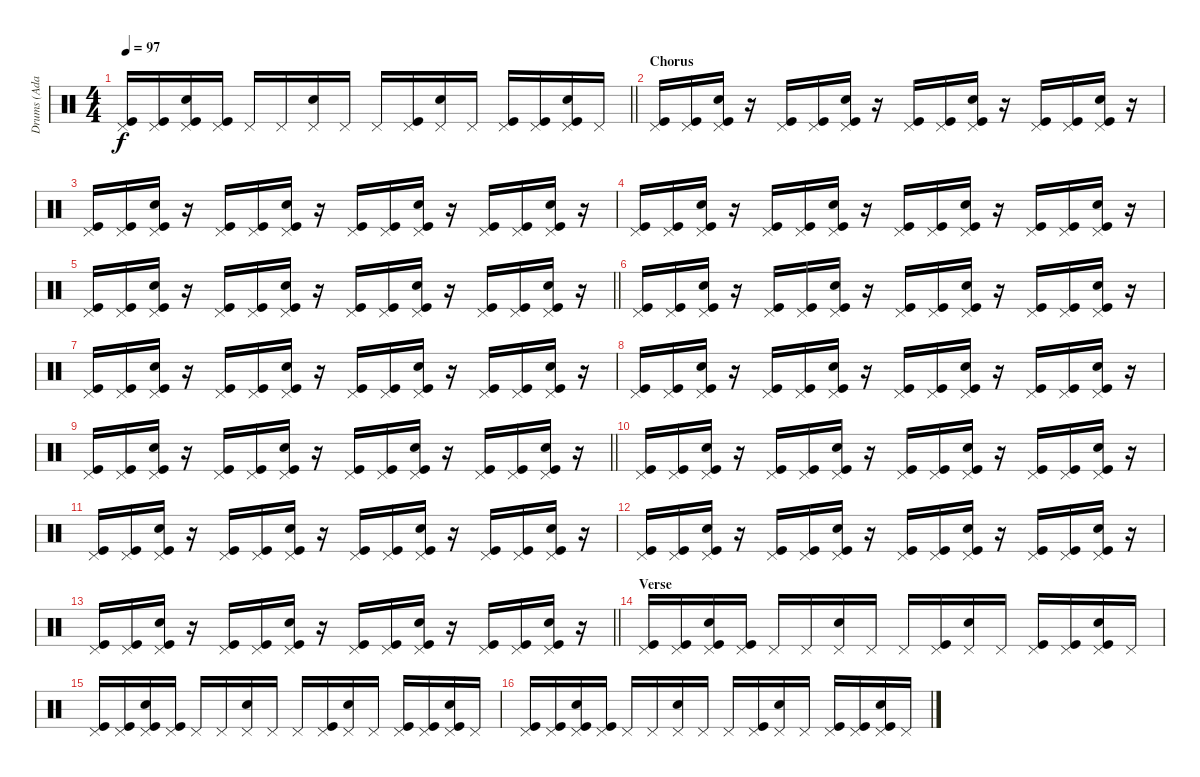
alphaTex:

\track ("Drums (Adam)" "Drums (Ada") {instrument percussion}
\staff {score}
\articulation defaults
\ts (4 4)
\tempo 97
\clef neutral
\barLineRight lightlight
\ks c
("Kick (hit)" "Pedal Hi-Hat (hit)").16{dy f} ("Kick (hit)" "Pedal Hi-Hat (hit)").16 ("Kick (hit)" "Snare (hit) 2" "Pedal Hi-Hat (hit)").16 ("Kick (hit)" "Pedal Hi-Hat (hit)").16 "Pedal Hi-Hat (hit)".16 "Pedal Hi-Hat (hit)".16 ("Snare (hit) 2" "Pedal Hi-Hat (hit)").16 "Pedal Hi-Hat (hit)".16 "Pedal Hi-Hat (hit)".16 ("Kick (hit)" "Pedal Hi-Hat (hit)").16 ("Snare (hit) 2" "Pedal Hi-Hat (hit)").16 "Pedal Hi-Hat (hit)".16 ("Kick (hit)" "Pedal Hi-Hat (hit)").16 ("Kick (hit)" "Pedal Hi-Hat (hit)").16 ("Kick (hit)" "Pedal Hi-Hat (hit)" "Snare (hit) 2").16 "Pedal Hi-Hat (hit)".16 |
\section ("" "Chorus")
("Kick (hit)" "Pedal Hi-Hat (hit)").16 ("Kick (hit)" "Pedal Hi-Hat (hit)").16 ("Kick (hit)" "Pedal Hi-Hat (hit)" "Snare (hit) 2").16 r.16 ("Kick (hit)" "Pedal Hi-Hat (hit)").16 ("Kick (hit)" "Pedal Hi-Hat (hit)").16 ("Kick (hit)" "Pedal Hi-Hat (hit)" "Snare (hit) 2").16 r.16 ("Kick (hit)" "Pedal Hi-Hat (hit)").16 ("Kick (hit)" "Pedal Hi-Hat (hit)").16 ("Kick (hit)" "Pedal Hi-Hat (hit)" "Snare (hit) 2").16 r.16 ("Kick (hit)" "Pedal Hi-Hat (hit)").16 ("Kick (hit)" "Pedal Hi-Hat (hit)").16 ("Kick (hit)" "Pedal Hi-Hat (hit)" "Snare (hit) 2").16 r.16 |
("Kick (hit)" "Pedal Hi-Hat (hit)").16 ("Kick (hit)" "Pedal Hi-Hat (hit)").16 ("Kick (hit)" "Pedal Hi-Hat (hit)" "Snare (hit) 2").16 r.16 ("Kick (hit)" "Pedal Hi-Hat (hit)").16 ("Kick (hit)" "Pedal Hi-Hat (hit)").16 ("Kick (hit)" "Pedal Hi-Hat (hit)" "Snare (hit) 2").16 r.16 ("Kick (hit)" "Pedal Hi-Hat (hit)").16 ("Kick (hit)" "Pedal Hi-Hat (hit)").16 ("Kick (hit)" "Pedal Hi-Hat (hit)" "Snare (hit) 2").16 r.16 ("Kick (hit)" "Pedal Hi-Hat (hit)").16 ("Kick (hit)" "Pedal Hi-Hat (hit)").16 ("Kick (hit)" "Pedal Hi-Hat (hit)" "Snare (hit) 2").16 r.16 |
("Kick (hit)" "Pedal Hi-Hat (hit)").16 ("Kick (hit)" "Pedal Hi-Hat (hit)").16 ("Kick (hit)" "Pedal Hi-Hat (hit)" "Snare (hit) 2").16 r.16 ("Kick (hit)" "Pedal Hi-Hat (hit)").16 ("Kick (hit)" "Pedal Hi-Hat (hit)").16 ("Kick (hit)" "Pedal Hi-Hat (hit)" "Snare (hit) 2").16 r.16 ("Kick (hit)" "Pedal Hi-Hat (hit)").16 ("Kick (hit)" "Pedal Hi-Hat (hit)").16 ("Kick (hit)" "Pedal Hi-Hat (hit)" "Snare (hit) 2").16 r.16 ("Kick (hit)" "Pedal Hi-Hat (hit)").16 ("Kick (hit)" "Pedal Hi-Hat (hit)").16 ("Kick (hit)" "Pedal Hi-Hat (hit)" "Snare (hit) 2").16 r.16 |
\barLineRight lightlight
("Kick (hit)" "Pedal Hi-Hat (hit)").16 ("Kick (hit)" "Pedal Hi-Hat (hit)").16 ("Kick (hit)" "Pedal Hi-Hat (hit)" "Snare (hit) 2").16 r.16 ("Kick (hit)" "Pedal Hi-Hat (hit)").16 ("Kick (hit)" "Pedal Hi-Hat (hit)").16 ("Kick (hit)" "Pedal Hi-Hat (hit)" "Snare (hit) 2").16 r.16 ("Kick (hit)" "Pedal Hi-Hat (hit)").16 ("Kick (hit)" "Pedal Hi-Hat (hit)").16 ("Kick (hit)" "Pedal Hi-Hat (hit)" "Snare (hit) 2").16 r.16 ("Kick (hit)" "Pedal Hi-Hat (hit)").16 ("Kick (hit)" "Pedal Hi-Hat (hit)").16 ("Kick (hit)" "Pedal Hi-Hat (hit)" "Snare (hit) 2").16 r.16 |
("Kick (hit)" "Pedal Hi-Hat (hit)").16 ("Kick (hit)" "Pedal Hi-Hat (hit)").16 ("Kick (hit)" "Pedal Hi-Hat (hit)" "Snare (hit) 2").16 r.16 ("Kick (hit)" "Pedal Hi-Hat (hit)").16 ("Kick (hit)" "Pedal Hi-Hat (hit)").16 ("Kick (hit)" "Pedal Hi-Hat (hit)" "Snare (hit) 2").16 r.16 ("Kick (hit)" "Pedal Hi-Hat (hit)").16 ("Kick (hit)" "Pedal Hi-Hat (hit)").16 ("Kick (hit)" "Pedal Hi-Hat (hit)" "Snare (hit) 2").16 r.16 ("Kick (hit)" "Pedal Hi-Hat (hit)").16 ("Kick (hit)" "Pedal Hi-Hat (hit)").16 ("Kick (hit)" "Pedal Hi-Hat (hit)" "Snare (hit) 2").16 r.16 |
("Kick (hit)" "Pedal Hi-Hat (hit)").16 ("Kick (hit)" "Pedal Hi-Hat (hit)").16 ("Kick (hit)" "Pedal Hi-Hat (hit)" "Snare (hit) 2").16 r.16 ("Kick (hit)" "Pedal Hi-Hat (hit)").16 ("Kick (hit)" "Pedal Hi-Hat (hit)").16 ("Kick (hit)" "Pedal Hi-Hat (hit)" "Snare (hit) 2").16 r.16 ("Kick (hit)" "Pedal Hi-Hat (hit)").16 ("Kick (hit)" "Pedal Hi-Hat (hit)").16 ("Kick (hit)" "Pedal Hi-Hat (hit)" "Snare (hit) 2").16 r.16 ("Kick (hit)" "Pedal Hi-Hat (hit)").16 ("Kick (hit)" "Pedal Hi-Hat (hit)").16 ("Kick (hit)" "Pedal Hi-Hat (hit)" "Snare (hit) 2").16 r.16 |
("Kick (hit)" "Pedal Hi-Hat (hit)").16 ("Kick (hit)" "Pedal Hi-Hat (hit)").16 ("Kick (hit)" "Pedal Hi-Hat (hit)" "Snare (hit) 2").16 r.16 ("Kick (hit)" "Pedal Hi-Hat (hit)").16 ("Kick (hit)" "Pedal Hi-Hat (hit)").16 ("Kick (hit)" "Pedal Hi-Hat (hit)" "Snare (hit) 2").16 r.16 ("Kick (hit)" "Pedal Hi-Hat (hit)").16 ("Kick (hit)" "Pedal Hi-Hat (hit)").16 ("Kick (hit)" "Pedal Hi-Hat (hit)" "Snare (hit) 2").16 r.16 ("Kick (hit)" "Pedal Hi-Hat (hit)").16 ("Kick (hit)" "Pedal Hi-Hat (hit)").16 ("Kick (hit)" "Pedal Hi-Hat (hit)" "Snare (hit) 2").16 r.16 |
\barLineRight lightlight
("Kick (hit)" "Pedal Hi-Hat (hit)").16 ("Kick (hit)" "Pedal Hi-Hat (hit)").16 ("Kick (hit)" "Pedal Hi-Hat (hit)" "Snare (hit) 2").16 r.16 ("Kick (hit)" "Pedal Hi-Hat (hit)").16 ("Kick (hit)" "Pedal Hi-Hat (hit)").16 ("Kick (hit)" "Pedal Hi-Hat (hit)" "Snare (hit) 2").16 r.16 ("Kick (hit)" "Pedal Hi-Hat (hit)").16 ("Kick (hit)" "Pedal Hi-Hat (hit)").16 ("Kick (hit)" "Pedal Hi-Hat (hit)" "Snare (hit) 2").16 r.16 ("Kick (hit)" "Pedal Hi-Hat (hit)").16 ("Kick (hit)" "Pedal Hi-Hat (hit)").16 ("Kick (hit)" "Pedal Hi-Hat (hit)" "Snare (hit) 2").16 r.16 |
("Kick (hit)" "Pedal Hi-Hat (hit)").16 ("Kick (hit)" "Pedal Hi-Hat (hit)").16 ("Kick (hit)" "Pedal Hi-Hat (hit)" "Snare (hit) 2").16 r.16 ("Kick (hit)" "Pedal Hi-Hat (hit)").16 ("Kick (hit)" "Pedal Hi-Hat (hit)").16 ("Kick (hit)" "Pedal Hi-Hat (hit)" "Snare (hit) 2").16 r.16 ("Kick (hit)" "Pedal Hi-Hat (hit)").16 ("Kick (hit)" "Pedal Hi-Hat (hit)").16 ("Kick (hit)" "Pedal Hi-Hat (hit)" "Snare (hit) 2").16 r.16 ("Kick (hit)" "Pedal Hi-Hat (hit)").16 ("Kick (hit)" "Pedal Hi-Hat (hit)").16 ("Kick (hit)" "Pedal Hi-Hat (hit)" "Snare (hit) 2").16 r.16 |
("Kick (hit)" "Pedal Hi-Hat (hit)").16 ("Kick (hit)" "Pedal Hi-Hat (hit)").16 ("Kick (hit)" "Pedal Hi-Hat (hit)" "Snare (hit) 2").16 r.16 ("Kick (hit)" "Pedal Hi-Hat (hit)").16 ("Kick (hit)" "Pedal Hi-Hat (hit)").16 ("Kick (hit)" "Pedal Hi-Hat (hit)" "Snare (hit) 2").16 r.16 ("Kick (hit)" "Pedal Hi-Hat (hit)").16 ("Kick (hit)" "Pedal Hi-Hat (hit)").16 ("Kick (hit)" "Pedal Hi-Hat (hit)" "Snare (hit) 2").16 r.16 ("Kick (hit)" "Pedal Hi-Hat (hit)").16 ("Kick (hit)" "Pedal Hi-Hat (hit)").16 ("Kick (hit)" "Pedal Hi-Hat (hit)" "Snare (hit) 2").16 r.16 |
("Kick (hit)" "Pedal Hi-Hat (hit)").16 ("Kick (hit)" "Pedal Hi-Hat (hit)").16 ("Kick (hit)" "Pedal Hi-Hat (hit)" "Snare (hit) 2").16 r.16 ("Kick (hit)" "Pedal Hi-Hat (hit)").16 ("Kick (hit)" "Pedal Hi-Hat (hit)").16 ("Kick (hit)" "Pedal Hi-Hat (hit)" "Snare (hit) 2").16 r.16 ("Kick (hit)" "Pedal Hi-Hat (hit)").16 ("Kick (hit)" "Pedal Hi-Hat (hit)").16 ("Kick (hit)" "Pedal Hi-Hat (hit)" "Snare (hit) 2").16 r.16 ("Kick (hit)" "Pedal Hi-Hat (hit)").16 ("Kick (hit)" "Pedal Hi-Hat (hit)").16 ("Kick (hit)" "Pedal Hi-Hat (hit)" "Snare (hit) 2").16 r.16 |
\barLineRight lightlight
("Kick (hit)" "Pedal Hi-Hat (hit)").16 ("Kick (hit)" "Pedal Hi-Hat (hit)").16 ("Kick (hit)" "Pedal Hi-Hat (hit)" "Snare (hit) 2").16 r.16 ("Kick (hit)" "Pedal Hi-Hat (hit)").16 ("Kick (hit)" "Pedal Hi-Hat (hit)").16 ("Kick (hit)" "Pedal Hi-Hat (hit)" "Snare (hit) 2").16 r.16 ("Kick (hit)" "Pedal Hi-Hat (hit)").16 ("Kick (hit)" "Pedal Hi-Hat (hit)").16 ("Kick (hit)" "Pedal Hi-Hat (hit)" "Snare (hit) 2").16 r.16 ("Kick (hit)" "Pedal Hi-Hat (hit)").16 ("Kick (hit)" "Pedal Hi-Hat (hit)").16 ("Kick (hit)" "Pedal Hi-Hat (hit)" "Snare (hit) 2").16 r.16 |
\section ("" "Verse")
("Kick (hit)" "Pedal Hi-Hat (hit)").16 ("Kick (hit)" "Pedal Hi-Hat (hit)").16 ("Kick (hit)" "Snare (hit) 2" "Pedal Hi-Hat (hit)").16 ("Kick (hit)" "Pedal Hi-Hat (hit)").16 "Pedal Hi-Hat (hit)".16 "Pedal Hi-Hat (hit)".16 ("Snare (hit) 2" "Pedal Hi-Hat (hit)").16 "Pedal Hi-Hat (hit)".16 "Pedal Hi-Hat (hit)".16 ("Kick (hit)" "Pedal Hi-Hat (hit)").16 ("Snare (hit) 2" "Pedal Hi-Hat (hit)").16 "Pedal Hi-Hat (hit)".16 ("Kick (hit)" "Pedal Hi-Hat (hit)").16 ("Kick (hit)" "Pedal Hi-Hat (hit)").16 ("Kick (hit)" "Pedal Hi-Hat (hit)" "Snare (hit) 2").16 "Pedal Hi-Hat (hit)".16 |
("Kick (hit)" "Pedal Hi-Hat (hit)").16 ("Kick (hit)" "Pedal Hi-Hat (hit)").16 ("Kick (hit)" "Snare (hit) 2" "Pedal Hi-Hat (hit)").16 ("Kick (hit)" "Pedal Hi-Hat (hit)").16 "Pedal Hi-Hat (hit)".16 "Pedal Hi-Hat (hit)".16 ("Snare (hit) 2" "Pedal Hi-Hat (hit)").16 "Pedal Hi-Hat (hit)".16 "Pedal Hi-Hat (hit)".16 ("Kick (hit)" "Pedal Hi-Hat (hit)").16 ("Snare (hit) 2" "Pedal Hi-Hat (hit)").16 "Pedal Hi-Hat (hit)".16 ("Kick (hit)" "Pedal Hi-Hat (hit)").16 ("Kick (hit)" "Pedal Hi-Hat (hit)").16 ("Kick (hit)" "Pedal Hi-Hat (hit)" "Snare (hit) 2").16 "Pedal Hi-Hat (hit)".16 |
("Kick (hit)" "Pedal Hi-Hat (hit)").16 ("Kick (hit)" "Pedal Hi-Hat (hit)").16 ("Kick (hit)" "Snare (hit) 2" "Pedal Hi-Hat (hit)").16 ("Kick (hit)" "Pedal Hi-Hat (hit)").16 "Pedal Hi-Hat (hit)".16 "Pedal Hi-Hat (hit)".16 ("Snare (hit) 2" "Pedal Hi-Hat (hit)").16 "Pedal Hi-Hat (hit)".16 "Pedal Hi-Hat (hit)".16 ("Kick (hit)" "Pedal Hi-Hat (hit)").16 ("Snare (hit) 2" "Pedal Hi-Hat (hit)").16 "Pedal Hi-Hat (hit)".16 ("Kick (hit)" "Pedal Hi-Hat (hit)").16 ("Kick (hit)" "Pedal Hi-Hat (hit)").16 ("Kick (hit)" "Pedal Hi-Hat (hit)" "Snare (hit) 2").16 "Pedal Hi-Hat (hit)".16
